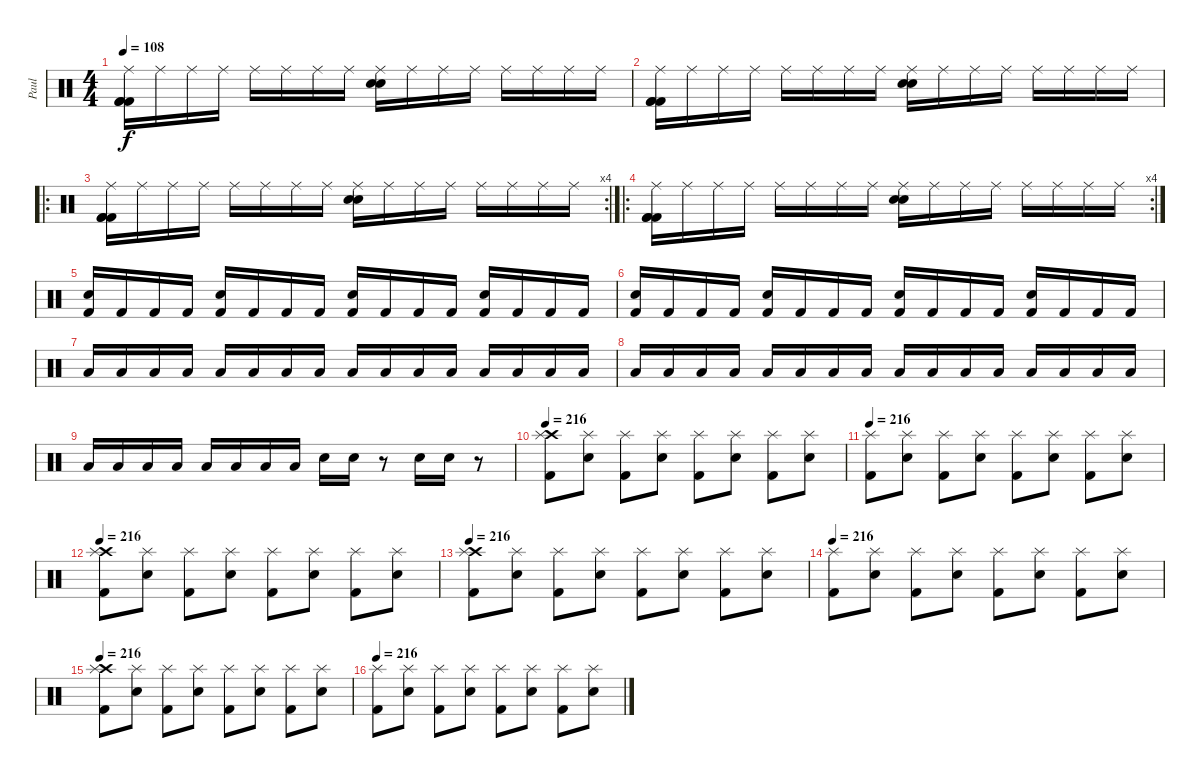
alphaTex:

\track ("Paul" "Paul") {instrument percussion}
\staff {score}
\articulation defaults
\ts (4 4)
\tempo 108
\clef neutral
\ks c
("Kick (hit) 2" "Ride (middle)" "Kick (hit) 2" "Kick (hit) 2").16{dy f} "Ride (middle)".16 "Ride (middle)".16 "Ride (middle)".16 "Ride (middle)".16 "Ride (middle)".16 "Ride (middle)".16 "Ride (middle)".16 ("Electric Snare (hit)" "Ride (middle)" "Electric Snare (hit)").16 "Ride (middle)".16 "Ride (middle)".16 "Ride (middle)".16 "Ride (middle)".16 "Ride (middle)".16 "Ride (middle)".16 "Ride (middle)".16 |
("Kick (hit) 2" "Ride (middle)" "Kick (hit) 2" "Kick (hit) 2").16 "Ride (middle)".16 "Ride (middle)".16 "Ride (middle)".16 "Ride (middle)".16 "Ride (middle)".16 "Ride (middle)".16 "Ride (middle)".16 ("Electric Snare (hit)" "Ride (middle)" "Electric Snare (hit)").16 "Ride (middle)".16 "Ride (middle)".16 "Ride (middle)".16 "Ride (middle)".16 "Ride (middle)".16 "Ride (middle)".16 "Ride (middle)".16 |
\ro
\rc 4
("Kick (hit) 2" "Ride (middle)" "Kick (hit) 2" "Kick (hit) 2").16 "Ride (middle)".16 "Ride (middle)".16 "Ride (middle)".16 "Ride (middle)".16 "Ride (middle)".16 "Ride (middle)".16 "Ride (middle)".16 ("Electric Snare (hit)" "Ride (middle)" "Electric Snare (hit)").16 "Ride (middle)".16 "Ride (middle)".16 "Ride (middle)".16 "Ride (middle)".16 "Ride (middle)".16 "Ride (middle)".16 "Ride (middle)".16 |
\ro
\rc 4
("Kick (hit) 2" "Ride (middle)" "Kick (hit) 2" "Kick (hit) 2").16 "Ride (middle)".16 "Ride (middle)".16 "Ride (middle)".16 "Ride (middle)".16 "Ride (middle)".16 "Ride (middle)".16 "Ride (middle)".16 ("Electric Snare (hit)" "Ride (middle)" "Electric Snare (hit)").16 "Ride (middle)".16 "Ride (middle)".16 "Ride (middle)".16 "Ride (middle)".16 "Ride (middle)".16 "Ride (middle)".16 "Ride (middle)".16 |
("Electric Snare (hit)" "Kick (hit) 2").16 "Kick (hit) 2".16 "Kick (hit) 2".16 "Kick (hit) 2".16 ("Electric Snare (hit)" "Kick (hit) 2").16 "Kick (hit) 2".16 "Kick (hit) 2".16 "Kick (hit) 2".16 ("Electric Snare (hit)" "Kick (hit) 2").16 "Kick (hit) 2".16 "Kick (hit) 2".16 "Kick (hit) 2".16 ("Electric Snare (hit)" "Kick (hit) 2").16 "Kick (hit) 2".16 "Kick (hit) 2".16 "Kick (hit) 2".16 |
("Electric Snare (hit)" "Kick (hit) 2").16 "Kick (hit) 2".16 "Kick (hit) 2".16 "Kick (hit) 2".16 ("Electric Snare (hit)" "Kick (hit) 2").16 "Kick (hit) 2".16 "Kick (hit) 2".16 "Kick (hit) 2".16 ("Electric Snare (hit)" "Kick (hit) 2").16 "Kick (hit) 2".16 "Kick (hit) 2".16 "Kick (hit) 2".16 ("Electric Snare (hit)" "Kick (hit) 2").16 "Kick (hit) 2".16 "Kick (hit) 2".16 "Kick (hit) 2".16 |
"Low Floor Tom (hit)".16 "Low Floor Tom (hit)".16 "Low Floor Tom (hit)".16 "Low Floor Tom (hit)".16 "Low Floor Tom (hit)".16 "Low Floor Tom (hit)".16 "Low Floor Tom (hit)".16 "Low Floor Tom (hit)".16 "Low Floor Tom (hit)".16 "Low Floor Tom (hit)".16 "Low Floor Tom (hit)".16 "Low Floor Tom (hit)".16 "Low Floor Tom (hit)".16 "Low Floor Tom (hit)".16 "Low Floor Tom (hit)".16 "Low Floor Tom (hit)".16 |
"Low Floor Tom (hit)".16 "Low Floor Tom (hit)".16 "Low Floor Tom (hit)".16 "Low Floor Tom (hit)".16 "Low Floor Tom (hit)".16 "Low Floor Tom (hit)".16 "Low Floor Tom (hit)".16 "Low Floor Tom (hit)".16 "Low Floor Tom (hit)".16 "Low Floor Tom (hit)".16 "Low Floor Tom (hit)".16 "Low Floor Tom (hit)".16 "Low Floor Tom (hit)".16 "Low Floor Tom (hit)".16 "Low Floor Tom (hit)".16 "Low Floor Tom (hit)".16 |
"Low Floor Tom (hit)".16 "Low Floor Tom (hit)".16 "Low Floor Tom (hit)".16 "Low Floor Tom (hit)".16 "Low Floor Tom (hit)".16 "Low Floor Tom (hit)".16 "Low Floor Tom (hit)".16 "Low Floor Tom (hit)".16 "Electric Snare (hit)".16 "Electric Snare (hit)".16 r.8 "Electric Snare (hit)".16 "Electric Snare (hit)".16 r.8 |
\tempo 216
("Crash high (hit)" "Splash (hit)" "Kick (hit) 2").8 ("Splash (hit)" "Electric Snare (hit)").8 ("Splash (hit)" "Kick (hit) 2").8 ("Splash (hit)" "Electric Snare (hit)").8 ("Splash (hit)" "Kick (hit) 2").8 ("Splash (hit)" "Electric Snare (hit)").8 ("Splash (hit)" "Kick (hit) 2").8 ("Splash (hit)" "Electric Snare (hit)").8 |
\tempo 216
("Splash (hit)" "Kick (hit) 2").8 ("Splash (hit)" "Electric Snare (hit)").8 ("Splash (hit)" "Kick (hit) 2").8 ("Splash (hit)" "Electric Snare (hit)").8 ("Splash (hit)" "Kick (hit) 2").8 ("Splash (hit)" "Electric Snare (hit)").8 ("Splash (hit)" "Kick (hit) 2").8 ("Splash (hit)" "Electric Snare (hit)").8 |
\tempo 216
("Crash high (hit)" "Splash (hit)" "Kick (hit) 2").8 ("Splash (hit)" "Electric Snare (hit)").8 ("Splash (hit)" "Kick (hit) 2").8 ("Splash (hit)" "Electric Snare (hit)").8 ("Splash (hit)" "Kick (hit) 2").8 ("Splash (hit)" "Electric Snare (hit)").8 ("Splash (hit)" "Kick (hit) 2").8 ("Splash (hit)" "Electric Snare (hit)").8 |
\tempo 216
("Crash high (hit)" "Splash (hit)" "Kick (hit) 2").8 ("Splash (hit)" "Electric Snare (hit)").8 ("Splash (hit)" "Kick (hit) 2").8 ("Splash (hit)" "Electric Snare (hit)").8 ("Splash (hit)" "Kick (hit) 2").8 ("Splash (hit)" "Electric Snare (hit)").8 ("Splash (hit)" "Kick (hit) 2").8 ("Splash (hit)" "Electric Snare (hit)").8 |
\tempo 216
("Splash (hit)" "Kick (hit) 2").8 ("Splash (hit)" "Electric Snare (hit)").8 ("Splash (hit)" "Kick (hit) 2").8 ("Splash (hit)" "Electric Snare (hit)").8 ("Splash (hit)" "Kick (hit) 2").8 ("Splash (hit)" "Electric Snare (hit)").8 ("Splash (hit)" "Kick (hit) 2").8 ("Splash (hit)" "Electric Snare (hit)").8 |
\tempo 216
("Crash high (hit)" "Splash (hit)" "Kick (hit) 2").8 ("Splash (hit)" "Electric Snare (hit)").8 ("Splash (hit)" "Kick (hit) 2").8 ("Splash (hit)" "Electric Snare (hit)").8 ("Splash (hit)" "Kick (hit) 2").8 ("Splash (hit)" "Electric Snare (hit)").8 ("Splash (hit)" "Kick (hit) 2").8 ("Splash (hit)" "Electric Snare (hit)").8 |
\tempo 216
("Splash (hit)" "Kick (hit) 2").8 ("Splash (hit)" "Electric Snare (hit)").8 ("Splash (hit)" "Kick (hit) 2").8 ("Splash (hit)" "Electric Snare (hit)").8 ("Splash (hit)" "Kick (hit) 2").8 ("Splash (hit)" "Electric Snare (hit)").8 ("Splash (hit)" "Kick (hit) 2").8 ("Splash (hit)" "Electric Snare (hit)").8
